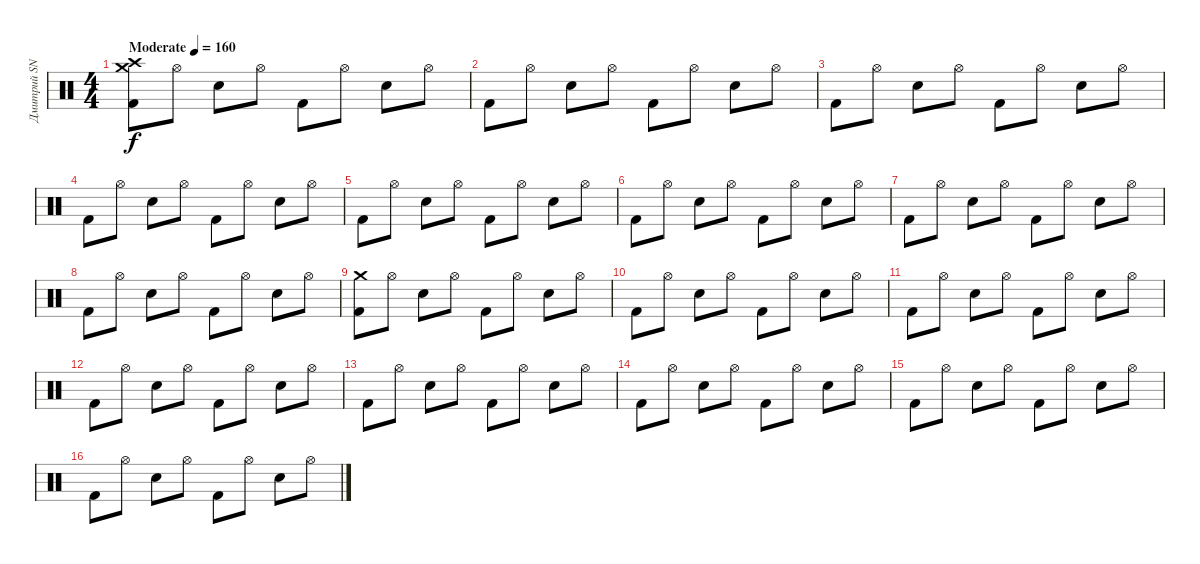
\track ("Дмитрий SNAKE Хакимов" "Дмитрий SN") {instrument percussion}
\staff {score}
\articulation defaults
\ts (4 4)
\tempo (160 "Moderate")
\clef neutral
\ks c
("Crash high (hit)" "Crash medium (hit)" "Kick (hit) 2").8{dy f} "Hi-Hat (open)".8 "Electric Snare (hit)".8 "Hi-Hat (open)".8 "Kick (hit) 2".8 "Hi-Hat (open)".8 "Electric Snare (hit)".8 "Hi-Hat (open)".8 |
"Kick (hit) 2".8 "Hi-Hat (open)".8 "Electric Snare (hit)".8 "Hi-Hat (open)".8 "Kick (hit) 2".8 "Hi-Hat (open)".8 "Electric Snare (hit)".8 "Hi-Hat (open)".8 |
"Kick (hit) 2".8 "Hi-Hat (open)".8 "Electric Snare (hit)".8 "Hi-Hat (open)".8 "Kick (hit) 2".8 "Hi-Hat (open)".8 "Electric Snare (hit)".8 "Hi-Hat (open)".8 |
"Kick (hit) 2".8 "Hi-Hat (open)".8 "Electric Snare (hit)".8 "Hi-Hat (open)".8 "Kick (hit) 2".8 "Hi-Hat (open)".8 "Electric Snare (hit)".8 "Hi-Hat (open)".8 |
"Kick (hit) 2".8 "Hi-Hat (open)".8 "Electric Snare (hit)".8 "Hi-Hat (open)".8 "Kick (hit) 2".8 "Hi-Hat (open)".8 "Electric Snare (hit)".8 "Hi-Hat (open)".8 |
"Kick (hit) 2".8 "Hi-Hat (open)".8 "Electric Snare (hit)".8 "Hi-Hat (open)".8 "Kick (hit) 2".8 "Hi-Hat (open)".8 "Electric Snare (hit)".8 "Hi-Hat (open)".8 |
"Kick (hit) 2".8 "Hi-Hat (open)".8 "Electric Snare (hit)".8 "Hi-Hat (open)".8 "Kick (hit) 2".8 "Hi-Hat (open)".8 "Electric Snare (hit)".8 "Hi-Hat (open)".8 |
"Kick (hit) 2".8 "Hi-Hat (open)".8 "Electric Snare (hit)".8 "Hi-Hat (open)".8 "Kick (hit) 2".8 "Hi-Hat (open)".8 "Electric Snare (hit)".8 "Hi-Hat (open)".8 |
("Crash medium (hit)" "Kick (hit) 2").8 "Hi-Hat (open)".8 "Electric Snare (hit)".8 "Hi-Hat (open)".8 "Kick (hit) 2".8 "Hi-Hat (open)".8 "Electric Snare (hit)".8 "Hi-Hat (open)".8 |
"Kick (hit) 2".8 "Hi-Hat (open)".8 "Electric Snare (hit)".8 "Hi-Hat (open)".8 "Kick (hit) 2".8 "Hi-Hat (open)".8 "Electric Snare (hit)".8 "Hi-Hat (open)".8 |
"Kick (hit) 2".8 "Hi-Hat (open)".8 "Electric Snare (hit)".8 "Hi-Hat (open)".8 "Kick (hit) 2".8 "Hi-Hat (open)".8 "Electric Snare (hit)".8 "Hi-Hat (open)".8 |
"Kick (hit) 2".8 "Hi-Hat (open)".8 "Electric Snare (hit)".8 "Hi-Hat (open)".8 "Kick (hit) 2".8 "Hi-Hat (open)".8 "Electric Snare (hit)".8 "Hi-Hat (open)".8 |
"Kick (hit) 2".8 "Hi-Hat (open)".8 "Electric Snare (hit)".8 "Hi-Hat (open)".8 "Kick (hit) 2".8 "Hi-Hat (open)".8 "Electric Snare (hit)".8 "Hi-Hat (open)".8 |
"Kick (hit) 2".8 "Hi-Hat (open)".8 "Electric Snare (hit)".8 "Hi-Hat (open)".8 "Kick (hit) 2".8 "Hi-Hat (open)".8 "Electric Snare (hit)".8 "Hi-Hat (open)".8 |
"Kick (hit) 2".8 "Hi-Hat (open)".8 "Electric Snare (hit)".8 "Hi-Hat (open)".8 "Kick (hit) 2".8 "Hi-Hat (open)".8 "Electric Snare (hit)".8 "Hi-Hat (open)".8 |
"Kick (hit) 2".8 "Hi-Hat (open)".8 "Electric Snare (hit)".8 "Hi-Hat (open)".8 "Kick (hit) 2".8 "Hi-Hat (open)".8 "Electric Snare (hit)".8 "Hi-Hat (open)".8
